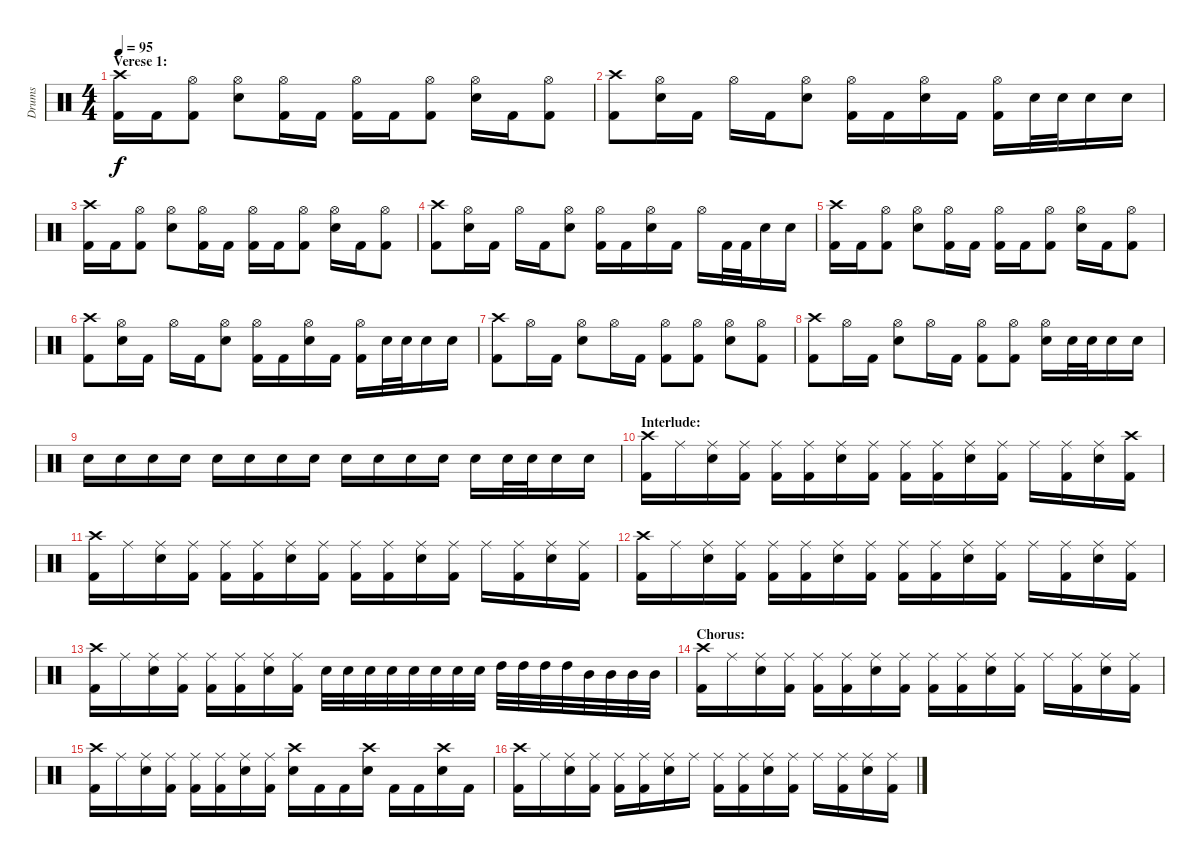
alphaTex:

\track ("Drums" "Drums") {instrument percussion}
\staff {score}
\articulation defaults
\ts (4 4)
\section ("" "Verese 1:")
\tempo 95
\clef neutral
\ks c
("Crash high (hit)" "Kick (hit) 2").16{dy f} "Kick (hit) 2".16 ("Hi-Hat (open)" "Kick (hit) 2").8 ("Hi-Hat (open)" "Electric Snare (hit)").8 ("Hi-Hat (open)" "Kick (hit) 2").16 "Kick (hit) 2".16 ("Hi-Hat (open)" "Kick (hit) 2").16 "Kick (hit) 2".16 ("Hi-Hat (open)" "Kick (hit) 2").8 ("Hi-Hat (open)" "Electric Snare (hit)").16 "Kick (hit) 2".16 ("Hi-Hat (open)" "Kick (hit) 2").8 |
("Crash high (hit)" "Kick (hit) 2").8 ("Hi-Hat (open)" "Electric Snare (hit)").16 "Kick (hit) 2".16 "Hi-Hat (open)".16 "Kick (hit) 2".16 ("Hi-Hat (open)" "Electric Snare (hit)").8 ("Hi-Hat (open)" "Kick (hit) 2").16 "Kick (hit) 2".16 ("Hi-Hat (open)" "Electric Snare (hit)").16 "Kick (hit) 2".16 ("Hi-Hat (open)" "Kick (hit) 2").16 "Electric Snare (hit)".32 "Electric Snare (hit)".32 "Electric Snare (hit)".16 "Electric Snare (hit)".16 |
("Crash high (hit)" "Kick (hit) 2").16 "Kick (hit) 2".16 ("Hi-Hat (open)" "Kick (hit) 2").8 ("Hi-Hat (open)" "Electric Snare (hit)").8 ("Hi-Hat (open)" "Kick (hit) 2").16 "Kick (hit) 2".16 ("Hi-Hat (open)" "Kick (hit) 2").16 "Kick (hit) 2".16 ("Hi-Hat (open)" "Kick (hit) 2").8 ("Hi-Hat (open)" "Electric Snare (hit)").16 "Kick (hit) 2".16 ("Hi-Hat (open)" "Kick (hit) 2").8 |
("Crash high (hit)" "Kick (hit) 2").8 ("Hi-Hat (open)" "Electric Snare (hit)").16 "Kick (hit) 2".16 "Hi-Hat (open)".16 "Kick (hit) 2".16 ("Hi-Hat (open)" "Electric Snare (hit)").8 ("Hi-Hat (open)" "Kick (hit) 2").16 "Kick (hit) 2".16 ("Hi-Hat (open)" "Electric Snare (hit)").16 "Kick (hit) 2".16 "Hi-Hat (open)".16 "Kick (hit) 2".32 "Kick (hit) 2".32 "Electric Snare (hit)".16 "Electric Snare (hit)".16 |
("Crash high (hit)" "Kick (hit) 2").16 "Kick (hit) 2".16 ("Hi-Hat (open)" "Kick (hit) 2").8 ("Hi-Hat (open)" "Electric Snare (hit)").8 ("Hi-Hat (open)" "Kick (hit) 2").16 "Kick (hit) 2".16 ("Hi-Hat (open)" "Kick (hit) 2").16 "Kick (hit) 2".16 ("Hi-Hat (open)" "Kick (hit) 2").8 ("Hi-Hat (open)" "Electric Snare (hit)").16 "Kick (hit) 2".16 ("Hi-Hat (open)" "Kick (hit) 2").8 |
("Crash high (hit)" "Kick (hit) 2").8 ("Hi-Hat (open)" "Electric Snare (hit)").16 "Kick (hit) 2".16 "Hi-Hat (open)".16 "Kick (hit) 2".16 ("Hi-Hat (open)" "Electric Snare (hit)").8 ("Hi-Hat (open)" "Kick (hit) 2").16 "Kick (hit) 2".16 ("Hi-Hat (open)" "Electric Snare (hit)").16 "Kick (hit) 2".16 ("Hi-Hat (open)" "Kick (hit) 2").16 "Electric Snare (hit)".32 "Electric Snare (hit)".32 "Electric Snare (hit)".16 "Electric Snare (hit)".16 |
("Crash high (hit)" "Kick (hit) 2").8 "Hi-Hat (open)".16 "Kick (hit) 2".16 ("Hi-Hat (open)" "Electric Snare (hit)").8 "Hi-Hat (open)".16 "Kick (hit) 2".16 ("Hi-Hat (open)" "Kick (hit) 2").8 ("Hi-Hat (open)" "Kick (hit) 2").8 ("Hi-Hat (open)" "Electric Snare (hit)").8 ("Hi-Hat (open)" "Kick (hit) 2").8 |
("Crash high (hit)" "Kick (hit) 2").8 "Hi-Hat (open)".16 "Kick (hit) 2".16 ("Hi-Hat (open)" "Electric Snare (hit)").8 "Hi-Hat (open)".16 "Kick (hit) 2".16 ("Hi-Hat (open)" "Kick (hit) 2").8 ("Hi-Hat (open)" "Kick (hit) 2").8 ("Hi-Hat (open)" "Electric Snare (hit)").16 "Electric Snare (hit)".32 "Electric Snare (hit)".32 "Electric Snare (hit)".16 "Electric Snare (hit)".16 |
"Electric Snare (hit)".16 "Electric Snare (hit)".16 "Electric Snare (hit)".16 "Electric Snare (hit)".16 "Electric Snare (hit)".16 "Electric Snare (hit)".16 "Electric Snare (hit)".16 "Electric Snare (hit)".16 "Electric Snare (hit)".16 "Electric Snare (hit)".16 "Electric Snare (hit)".16 "Electric Snare (hit)".16 "Electric Snare (hit)".16 "Electric Snare (hit)".32 "Electric Snare (hit)".32 "Electric Snare (hit)".16 "Electric Snare (hit)".16 |
\section ("" "Interlude:")
("Crash high (hit)" "Kick (hit) 2").16 "Ride (middle)".16 ("Ride (middle)" "Electric Snare (hit)").16 ("Ride (middle)" "Kick (hit) 2").16 ("Ride (middle)" "Kick (hit) 2").16 ("Ride (middle)" "Kick (hit) 2").16 ("Ride (middle)" "Electric Snare (hit)").16 ("Ride (middle)" "Kick (hit) 2").16 ("Ride (middle)" "Kick (hit) 2").16 ("Ride (middle)" "Kick (hit) 2").16 ("Ride (middle)" "Electric Snare (hit)").16 ("Ride (middle)" "Kick (hit) 2").16 "Ride (middle)".16 ("Ride (middle)" "Kick (hit) 2").16 ("Ride (middle)" "Electric Snare (hit)").16 ("Crash high (hit)" "Kick (hit) 2").16 |
("Crash high (hit)" "Kick (hit) 2").16 "Ride (middle)".16 ("Ride (middle)" "Electric Snare (hit)").16 ("Ride (middle)" "Kick (hit) 2").16 ("Ride (middle)" "Kick (hit) 2").16 ("Ride (middle)" "Kick (hit) 2").16 ("Ride (middle)" "Electric Snare (hit)").16 ("Ride (middle)" "Kick (hit) 2").16 ("Ride (middle)" "Kick (hit) 2").16 ("Ride (middle)" "Kick (hit) 2").16 ("Ride (middle)" "Electric Snare (hit)").16 ("Ride (middle)" "Kick (hit) 2").16 "Ride (middle)".16 ("Ride (middle)" "Kick (hit) 2").16 ("Ride (middle)" "Electric Snare (hit)").16 ("Ride (middle)" "Kick (hit) 2").16 |
("Crash high (hit)" "Kick (hit) 2").16 "Ride (middle)".16 ("Ride (middle)" "Electric Snare (hit)").16 ("Ride (middle)" "Kick (hit) 2").16 ("Ride (middle)" "Kick (hit) 2").16 ("Ride (middle)" "Kick (hit) 2").16 ("Ride (middle)" "Electric Snare (hit)").16 ("Ride (middle)" "Kick (hit) 2").16 ("Ride (middle)" "Kick (hit) 2").16 ("Ride (middle)" "Kick (hit) 2").16 ("Ride (middle)" "Electric Snare (hit)").16 ("Ride (middle)" "Kick (hit) 2").16 "Ride (middle)".16 ("Ride (middle)" "Kick (hit) 2").16 ("Ride (middle)" "Electric Snare (hit)").16 ("Ride (middle)" "Kick (hit) 2").16 |
("Crash high (hit)" "Kick (hit) 2").16 "Ride (middle)".16 ("Ride (middle)" "Electric Snare (hit)").16 ("Ride (middle)" "Kick (hit) 2").16 ("Ride (middle)" "Kick (hit) 2").16 ("Ride (middle)" "Kick (hit) 2").16 ("Ride (middle)" "Electric Snare (hit)").16 ("Ride (middle)" "Kick (hit) 2").16 "Electric Snare (hit)".32 "Electric Snare (hit)".32 "Electric Snare (hit)".32 "Electric Snare (hit)".32 "Electric Snare (hit)".32 "Electric Snare (hit)".32 "Electric Snare (hit)".32 "Electric Snare (hit)".32 "High Tom (hit)".32 "High Tom (hit)".32 "High Tom (hit)".32 "High Tom (hit)".32 "Mid Tom (hit)".32 "Mid Tom (hit)".32 "Mid Tom (hit)".32 "Mid Tom (hit)".32 |
\section ("" "Chorus:")
("Crash high (hit)" "Kick (hit) 2").16 "Ride (middle)".16 ("Ride (middle)" "Electric Snare (hit)").16 ("Ride (middle)" "Kick (hit) 2").16 ("Ride (middle)" "Kick (hit) 2").16 ("Ride (middle)" "Kick (hit) 2").16 ("Ride (middle)" "Electric Snare (hit)").16 ("Ride (middle)" "Kick (hit) 2").16 ("Ride (middle)" "Kick (hit) 2").16 ("Ride (middle)" "Kick (hit) 2").16 ("Ride (middle)" "Electric Snare (hit)").16 ("Ride (middle)" "Kick (hit) 2").16 "Ride (middle)".16 ("Ride (middle)" "Kick (hit) 2").16 ("Ride (middle)" "Electric Snare (hit)").16 ("Ride (middle)" "Kick (hit) 2").16 |
("Crash high (hit)" "Kick (hit) 2").16 "Ride (middle)".16 ("Ride (middle)" "Electric Snare (hit)").16 ("Ride (middle)" "Kick (hit) 2").16 ("Ride (middle)" "Kick (hit) 2").16 ("Ride (middle)" "Kick (hit) 2").16 ("Ride (middle)" "Electric Snare (hit)").16 ("Ride (middle)" "Kick (hit) 2").16 ("Crash high (hit)" "Electric Snare (hit)").16 "Kick (hit) 2".16 "Kick (hit) 2".16 ("Crash high (hit)" "Electric Snare (hit)").16 "Kick (hit) 2".16 "Kick (hit) 2".16 ("Crash high (hit)" "Electric Snare (hit)").16 "Kick (hit) 2".16 |
("Crash high (hit)" "Kick (hit) 2").16 "Ride (middle)".16 ("Ride (middle)" "Electric Snare (hit)").16 ("Ride (middle)" "Kick (hit) 2").16 ("Ride (middle)" "Kick (hit) 2").16 ("Ride (middle)" "Kick (hit) 2").16 ("Ride (middle)" "Electric Snare (hit)").16 "Ride (middle)".16 ("Ride (middle)" "Kick (hit) 2").16 ("Ride (middle)" "Kick (hit) 2").16 ("Ride (middle)" "Electric Snare (hit)").16 ("Ride (middle)" "Kick (hit) 2").16 "Ride (middle)".16 ("Ride (middle)" "Kick (hit) 2").16 ("Ride (middle)" "Electric Snare (hit)").16 ("Ride (middle)" "Kick (hit) 2").16
